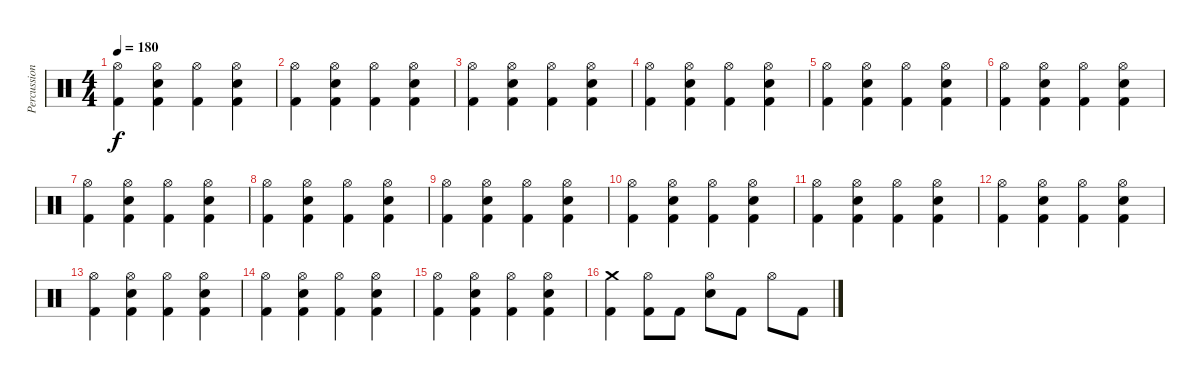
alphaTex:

\track ("Percussion" "Percussion") {instrument percussion}
\staff {score}
\articulation defaults
\ts (4 4)
\tempo 180
\clef neutral
\ks c
("Hi-Hat (open)" "Kick (hit) 2").4{dy f} ("Hi-Hat (open)" "Electric Snare (hit)" "Kick (hit) 2").4 ("Hi-Hat (open)" "Kick (hit) 2").4 ("Hi-Hat (open)" "Electric Snare (hit)" "Kick (hit) 2").4 |
("Hi-Hat (open)" "Kick (hit) 2").4 ("Hi-Hat (open)" "Electric Snare (hit)" "Kick (hit) 2").4 ("Hi-Hat (open)" "Kick (hit) 2").4 ("Hi-Hat (open)" "Electric Snare (hit)" "Kick (hit) 2").4 |
("Hi-Hat (open)" "Kick (hit) 2").4 ("Hi-Hat (open)" "Electric Snare (hit)" "Kick (hit) 2").4 ("Hi-Hat (open)" "Kick (hit) 2").4 ("Hi-Hat (open)" "Electric Snare (hit)" "Kick (hit) 2").4 |
("Hi-Hat (open)" "Kick (hit) 2").4 ("Hi-Hat (open)" "Electric Snare (hit)" "Kick (hit) 2").4 ("Hi-Hat (open)" "Kick (hit) 2").4 ("Hi-Hat (open)" "Electric Snare (hit)" "Kick (hit) 2").4 |
("Hi-Hat (open)" "Kick (hit) 2").4 ("Hi-Hat (open)" "Electric Snare (hit)" "Kick (hit) 2").4 ("Hi-Hat (open)" "Kick (hit) 2").4 ("Hi-Hat (open)" "Electric Snare (hit)" "Kick (hit) 2").4 |
("Hi-Hat (open)" "Kick (hit) 2").4 ("Hi-Hat (open)" "Electric Snare (hit)" "Kick (hit) 2").4 ("Hi-Hat (open)" "Kick (hit) 2").4 ("Hi-Hat (open)" "Electric Snare (hit)" "Kick (hit) 2").4 |
("Hi-Hat (open)" "Kick (hit) 2").4 ("Hi-Hat (open)" "Electric Snare (hit)" "Kick (hit) 2").4 ("Hi-Hat (open)" "Kick (hit) 2").4 ("Hi-Hat (open)" "Electric Snare (hit)" "Kick (hit) 2").4 |
("Hi-Hat (open)" "Kick (hit) 2").4 ("Hi-Hat (open)" "Electric Snare (hit)" "Kick (hit) 2").4 ("Hi-Hat (open)" "Kick (hit) 2").4 ("Hi-Hat (open)" "Electric Snare (hit)" "Kick (hit) 2").4 |
("Hi-Hat (open)" "Kick (hit) 2").4 ("Hi-Hat (open)" "Electric Snare (hit)" "Kick (hit) 2").4 ("Hi-Hat (open)" "Kick (hit) 2").4 ("Hi-Hat (open)" "Electric Snare (hit)" "Kick (hit) 2").4 |
("Hi-Hat (open)" "Kick (hit) 2").4 ("Hi-Hat (open)" "Electric Snare (hit)" "Kick (hit) 2").4 ("Hi-Hat (open)" "Kick (hit) 2").4 ("Hi-Hat (open)" "Electric Snare (hit)" "Kick (hit) 2").4 |
("Hi-Hat (open)" "Kick (hit) 2").4 ("Hi-Hat (open)" "Electric Snare (hit)" "Kick (hit) 2").4 ("Hi-Hat (open)" "Kick (hit) 2").4 ("Hi-Hat (open)" "Electric Snare (hit)" "Kick (hit) 2").4 |
("Hi-Hat (open)" "Kick (hit) 2").4 ("Hi-Hat (open)" "Electric Snare (hit)" "Kick (hit) 2").4 ("Hi-Hat (open)" "Kick (hit) 2").4 ("Hi-Hat (open)" "Electric Snare (hit)" "Kick (hit) 2").4 |
("Hi-Hat (open)" "Kick (hit) 2").4 ("Hi-Hat (open)" "Electric Snare (hit)" "Kick (hit) 2").4 ("Hi-Hat (open)" "Kick (hit) 2").4 ("Hi-Hat (open)" "Electric Snare (hit)" "Kick (hit) 2").4 |
("Hi-Hat (open)" "Kick (hit) 2").4 ("Hi-Hat (open)" "Electric Snare (hit)" "Kick (hit) 2").4 ("Hi-Hat (open)" "Kick (hit) 2").4 ("Hi-Hat (open)" "Electric Snare (hit)" "Kick (hit) 2").4 |
("Hi-Hat (open)" "Kick (hit) 2").4 ("Hi-Hat (open)" "Electric Snare (hit)" "Kick (hit) 2").4 ("Hi-Hat (open)" "Kick (hit) 2").4 ("Hi-Hat (open)" "Electric Snare (hit)" "Kick (hit) 2").4 |
("Crash medium (hit)" "Kick (hit) 2").4 ("Hi-Hat (open)" "Kick (hit) 2").8 "Kick (hit) 2".8 ("Hi-Hat (open)" "Electric Snare (hit)").8 "Kick (hit) 2".8 "Hi-Hat (open)".8 "Kick (hit) 2".8
